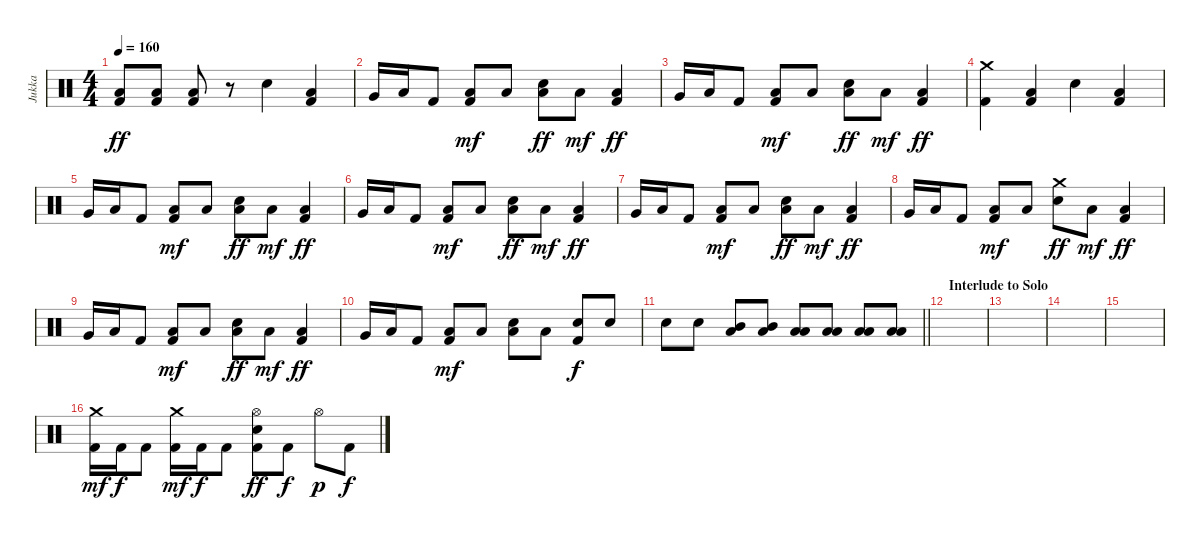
\track ("Jukka" "Jukka") {instrument percussion}
\staff {score}
\articulation defaults
\ts (4 4)
\tempo 160
\clef neutral
\ks c
("Low Floor Tom (hit)" "Kick (hit) 2").8{dy ff} ("Low Floor Tom (hit)" "Kick (hit) 2").8 ("Low Floor Tom (hit)" "Kick (hit) 2").8 r.8 "Snare (hit) 2".4 ("Low Floor Tom (hit)" "Kick (hit) 2").4 |
"Very Low Tom (hit)".16 "Low Floor Tom (hit)".16 "Kick (hit) 2".8 ("Low Floor Tom (hit)" "Kick (hit) 2").8{dy mf} "Low Floor Tom (hit)".8 ("Low Floor Tom (hit)" "Snare (hit) 2").8{dy ff} "Low Floor Tom (hit)".8{dy mf} ("Low Floor Tom (hit)" "Kick (hit) 2").4{dy ff} |
"Very Low Tom (hit)".16 "Low Floor Tom (hit)".16 "Kick (hit) 2".8 ("Low Floor Tom (hit)" "Kick (hit) 2").8{dy mf} "Low Floor Tom (hit)".8 ("Low Floor Tom (hit)" "Snare (hit) 2").8{dy ff} "Low Floor Tom (hit)".8{dy mf} ("Low Floor Tom (hit)" "Kick (hit) 2").4{dy ff} |
("Crash medium (hit)" "Kick (hit) 2").4 ("Low Floor Tom (hit)" "Kick (hit) 2").4 "Snare (hit) 2".4 ("Low Floor Tom (hit)" "Kick (hit) 2").4 |
"Very Low Tom (hit)".16 "Low Floor Tom (hit)".16 "Kick (hit) 2".8 ("Low Floor Tom (hit)" "Kick (hit) 2").8{dy mf} "Low Floor Tom (hit)".8 ("Low Floor Tom (hit)" "Snare (hit) 2").8{dy ff} "Low Floor Tom (hit)".8{dy mf} ("Low Floor Tom (hit)" "Kick (hit) 2").4{dy ff} |
"Very Low Tom (hit)".16 "Low Floor Tom (hit)".16 "Kick (hit) 2".8 ("Low Floor Tom (hit)" "Kick (hit) 2").8{dy mf} "Low Floor Tom (hit)".8 ("Low Floor Tom (hit)" "Snare (hit) 2").8{dy ff} "Low Floor Tom (hit)".8{dy mf} ("Low Floor Tom (hit)" "Kick (hit) 2").4{dy ff} |
"Very Low Tom (hit)".16 "Low Floor Tom (hit)".16 "Kick (hit) 2".8 ("Low Floor Tom (hit)" "Kick (hit) 2").8{dy mf} "Low Floor Tom (hit)".8 ("Low Floor Tom (hit)" "Snare (hit) 2").8{dy ff} "Low Floor Tom (hit)".8{dy mf} ("Low Floor Tom (hit)" "Kick (hit) 2").4{dy ff} |
"Very Low Tom (hit)".16 "Low Floor Tom (hit)".16 "Kick (hit) 2".8 ("Low Floor Tom (hit)" "Kick (hit) 2").8{dy mf} "Low Floor Tom (hit)".8 ("Crash medium (hit)" "Snare (hit) 2").8{dy ff} "Low Floor Tom (hit)".8{dy mf} ("Low Floor Tom (hit)" "Kick (hit) 2").4{dy ff} |
"Very Low Tom (hit)".16 "Low Floor Tom (hit)".16 "Kick (hit) 2".8 ("Low Floor Tom (hit)" "Kick (hit) 2").8{dy mf} "Low Floor Tom (hit)".8 ("Low Floor Tom (hit)" "Snare (hit) 2").8{dy ff} "Low Floor Tom (hit)".8{dy mf} ("Low Floor Tom (hit)" "Kick (hit) 2").4{dy ff} |
"Very Low Tom (hit)".16 "Low Floor Tom (hit)".16 "Kick (hit) 2".8 ("Low Floor Tom (hit)" "Kick (hit) 2").8{dy mf} "Low Floor Tom (hit)".8 ("Low Floor Tom (hit)" "Snare (hit) 2").8 "Low Floor Tom (hit)".8 ("Snare (hit) 2" "Kick (hit) 2").8{dy f} "Snare (hit) 2".8 |
\barLineRight lightlight "Snare (hit) 2".8 "Snare (hit) 2".8
("Mid Tom (hit)" "Low Tom (hit)").8 ("Mid Tom (hit)" "Low Tom (hit)").8 ("Low Tom (hit)" "Low Floor Tom (hit)").8 ("Low Tom (hit)" "Low Floor Tom (hit)").8 ("Low Floor Tom (hit)" "Low Floor Tom (hit)").8 ("Low Floor Tom (hit)" "Low Floor Tom (hit)").8 |
\section ("" "Interlude to Solo")
|
|
|
|
("Crash medium (hit)" "Kick (hit) 2").16{dy mf} "Kick (hit) 2".16{dy f} "Kick (hit) 2".8 ("Crash medium (hit)" "Kick (hit) 2").16{dy mf} "Kick (hit) 2".16{dy f} "Kick (hit) 2".8 ("Hi-Hat (open)" "Snare (hit) 2" "Kick (hit) 2").8{dy ff} "Kick (hit) 2".8{dy f} "Hi-Hat (open)".8{dy p} "Kick (hit) 2".8{dy f}
